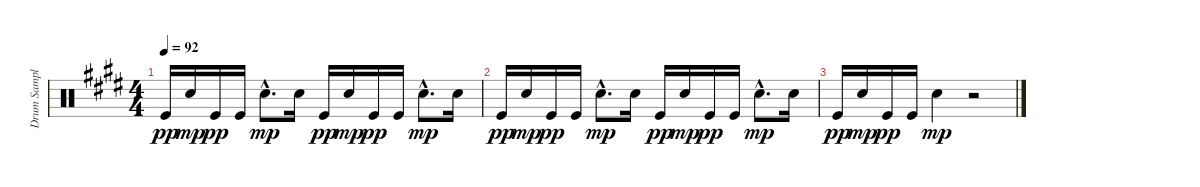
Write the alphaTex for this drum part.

\track ("Drum Sampler" "Drum Sampl") {instrument percussion}
\staff {score}
\articulation defaults
\ts (4 4)
\tempo 92
\clef neutral
\ks e "Kick (hit)".16{dy pp} "Electric Snare (hit)".16{dy mp} "Kick (hit)".16{dy pp} "Kick (hit)".16 "Electric Snare (hit)"{hac}.8{d dy mp} "Electric Snare (hit)".16 "Kick (hit)".16{dy pp} "Electric Snare (hit)".16{dy mp} "Kick (hit)".16{dy pp} "Kick (hit)".16 "Electric Snare (hit)"{hac}.8{d dy mp} "Electric Snare (hit)".16
|
"Kick (hit)".16{dy pp} "Electric Snare (hit)".16{dy mp} "Kick (hit)".16{dy pp} "Kick (hit)".16 "Electric Snare (hit)"{hac}.8{d dy mp} "Electric Snare (hit)".16 "Kick (hit)".16{dy pp} "Electric Snare (hit)".16{dy mp} "Kick (hit)".16{dy pp} "Kick (hit)".16 "Electric Snare (hit)"{hac}.8{d dy mp} "Electric Snare (hit)".16 |
"Kick (hit)".16{dy pp} "Electric Snare (hit)".16{dy mp} "Kick (hit)".16{dy pp} "Kick (hit)".16 "Electric Snare (hit)".4{dy mp} r.2
